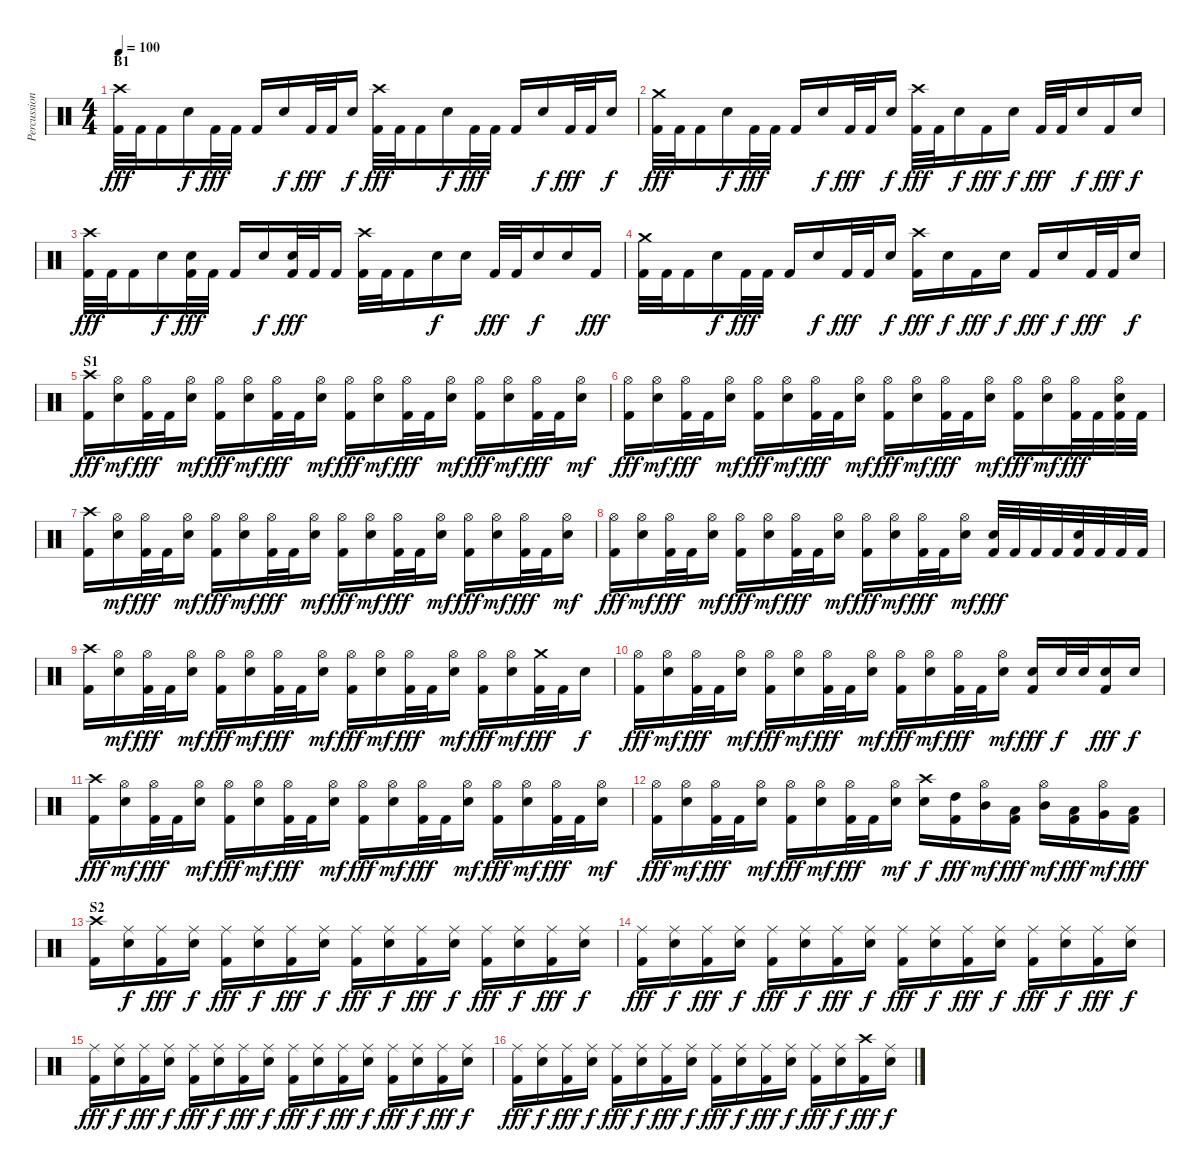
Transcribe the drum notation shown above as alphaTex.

\track ("Percussion" "Percussion") {instrument percussion}
\staff {score}
\articulation defaults
\ts (4 4)
\section ("" "B1")
\tempo 100
\clef neutral
\ks c
("Crash high (hit)" "Kick (hit) 2").32{dy fff} "Kick (hit) 2".32 "Kick (hit) 2".16 "Snare (hit) 2".16{dy f} "Kick (hit) 2".32{dy fff} "Kick (hit) 2".32 "Kick (hit) 2".16 "Snare (hit) 2".16{dy f} "Kick (hit) 2".32{dy fff} "Kick (hit) 2".32 "Snare (hit) 2".16{dy f} ("Crash high (hit)" "Kick (hit) 2").32{dy fff} "Kick (hit) 2".32 "Kick (hit) 2".16 "Snare (hit) 2".16{dy f} "Kick (hit) 2".32{dy fff} "Kick (hit) 2".32 "Kick (hit) 2".16 "Snare (hit) 2".16{dy f} "Kick (hit) 2".32{dy fff} "Kick (hit) 2".32 "Snare (hit) 2".16{dy f} |
("Crash medium (hit)" "Kick (hit) 2").32{dy fff} "Kick (hit) 2".32 "Kick (hit) 2".16 "Snare (hit) 2".16{dy f} "Kick (hit) 2".32{dy fff} "Kick (hit) 2".32 "Kick (hit) 2".16 "Snare (hit) 2".16{dy f} "Kick (hit) 2".32{dy fff} "Kick (hit) 2".32 "Snare (hit) 2".16{dy f} ("Crash high (hit)" "Kick (hit) 2").32{dy fff} "Kick (hit) 2".32 "Snare (hit) 2".16{dy f} "Kick (hit) 2".16{dy fff} "Snare (hit) 2".16{dy f} "Kick (hit) 2".32{dy fff} "Kick (hit) 2".32 "Snare (hit) 2".16{dy f} "Kick (hit) 2".16{dy fff} "Snare (hit) 2".16{dy f} |
("Crash high (hit)" "Kick (hit) 2").32{dy fff} "Kick (hit) 2".32 "Kick (hit) 2".16 "Snare (hit) 2".16{dy f} ("Snare (hit) 2" "Kick (hit) 2").32{dy fff} "Kick (hit) 2".32 "Kick (hit) 2".16 "Snare (hit) 2".16{dy f} ("Snare (hit) 2" "Kick (hit) 2").32{dy fff} "Kick (hit) 2".32 "Kick (hit) 2".16 ("Crash high (hit)" "Kick (hit) 2").32 "Kick (hit) 2".32 "Kick (hit) 2".16 "Snare (hit) 2".16{dy f} "Snare (hit) 2".16 "Kick (hit) 2".32{dy fff} "Kick (hit) 2".32 "Snare (hit) 2".16{dy f} "Snare (hit) 2".16 "Kick (hit) 2".16{dy fff} |
("Crash medium (hit)" "Kick (hit) 2").32 "Kick (hit) 2".32 "Kick (hit) 2".16 "Snare (hit) 2".16{dy f} "Kick (hit) 2".32{dy fff} "Kick (hit) 2".32 "Kick (hit) 2".16 "Snare (hit) 2".16{dy f} "Kick (hit) 2".32{dy fff} "Kick (hit) 2".32 "Snare (hit) 2".16{dy f} ("Crash high (hit)" "Kick (hit) 2").16{dy fff} "Snare (hit) 2".16{dy f} "Kick (hit) 2".16{dy fff} "Snare (hit) 2".16{dy f} "Kick (hit) 2".16{dy fff} "Snare (hit) 2".16{dy f} "Kick (hit) 2".32{dy fff} "Kick (hit) 2".32 "Snare (hit) 2".16{dy f} |
\section ("" "S1")
("Crash high (hit)" "Kick (hit) 2").16{dy fff} ("Hi-Hat (open)" "Snare (hit) 2").16{dy mf} ("Hi-Hat (open)" "Kick (hit) 2").32{dy fff} "Kick (hit) 2".32 ("Hi-Hat (open)" "Snare (hit) 2").16{dy mf} ("Hi-Hat (open)" "Kick (hit) 2").16{dy fff} ("Hi-Hat (open)" "Snare (hit) 2").16{dy mf} ("Hi-Hat (open)" "Kick (hit) 2").32{dy fff} "Kick (hit) 2".32 ("Hi-Hat (open)" "Snare (hit) 2").16{dy mf} ("Hi-Hat (open)" "Kick (hit) 2").16{dy fff} ("Hi-Hat (open)" "Snare (hit) 2").16{dy mf} ("Hi-Hat (open)" "Kick (hit) 2").32{dy fff} "Kick (hit) 2".32 ("Hi-Hat (open)" "Snare (hit) 2").16{dy mf} ("Hi-Hat (open)" "Kick (hit) 2").16{dy fff} ("Hi-Hat (open)" "Snare (hit) 2").16{dy mf} ("Hi-Hat (open)" "Kick (hit) 2").32{dy fff} "Kick (hit) 2".32 ("Hi-Hat (open)" "Snare (hit) 2").16{dy mf} |
("Hi-Hat (open)" "Kick (hit) 2").16{dy fff} ("Hi-Hat (open)" "Snare (hit) 2").16{dy mf} ("Hi-Hat (open)" "Kick (hit) 2").32{dy fff} "Kick (hit) 2".32 ("Hi-Hat (open)" "Snare (hit) 2").16{dy mf} ("Hi-Hat (open)" "Kick (hit) 2").16{dy fff} ("Hi-Hat (open)" "Snare (hit) 2").16{dy mf} ("Hi-Hat (open)" "Kick (hit) 2").32{dy fff} "Kick (hit) 2".32 ("Hi-Hat (open)" "Snare (hit) 2").16{dy mf} ("Hi-Hat (open)" "Kick (hit) 2").16{dy fff} ("Hi-Hat (open)" "Snare (hit) 2").16{dy mf} ("Hi-Hat (open)" "Kick (hit) 2").32{dy fff} "Kick (hit) 2".32 ("Hi-Hat (open)" "Snare (hit) 2").16{dy mf} ("Hi-Hat (open)" "Kick (hit) 2").16{dy fff} ("Hi-Hat (open)" "Snare (hit) 2").16{dy mf} ("Hi-Hat (open)" "Kick (hit) 2").32{dy fff} "Kick (hit) 2".32 ("Hi-Hat (open)" "Snare (hit) 2" "Kick (hit) 2").32 "Kick (hit) 2".32 |
("Crash high (hit)" "Kick (hit) 2").16 ("Hi-Hat (open)" "Snare (hit) 2").16{dy mf} ("Hi-Hat (open)" "Kick (hit) 2").32{dy fff} "Kick (hit) 2".32 ("Hi-Hat (open)" "Snare (hit) 2").16{dy mf} ("Hi-Hat (open)" "Kick (hit) 2").16{dy fff} ("Hi-Hat (open)" "Snare (hit) 2").16{dy mf} ("Hi-Hat (open)" "Kick (hit) 2").32{dy fff} "Kick (hit) 2".32 ("Hi-Hat (open)" "Snare (hit) 2").16{dy mf} ("Hi-Hat (open)" "Kick (hit) 2").16{dy fff} ("Hi-Hat (open)" "Snare (hit) 2").16{dy mf} ("Hi-Hat (open)" "Kick (hit) 2").32{dy fff} "Kick (hit) 2".32 ("Hi-Hat (open)" "Snare (hit) 2").16{dy mf} ("Hi-Hat (open)" "Kick (hit) 2").16{dy fff} ("Hi-Hat (open)" "Snare (hit) 2").16{dy mf} ("Hi-Hat (open)" "Kick (hit) 2").32{dy fff} "Kick (hit) 2".32 ("Hi-Hat (open)" "Snare (hit) 2").16{dy mf} |
("Hi-Hat (open)" "Kick (hit) 2").16{dy fff} ("Hi-Hat (open)" "Snare (hit) 2").16{dy mf} ("Hi-Hat (open)" "Kick (hit) 2").32{dy fff} "Kick (hit) 2".32 ("Hi-Hat (open)" "Snare (hit) 2").16{dy mf} ("Hi-Hat (open)" "Kick (hit) 2").16{dy fff} ("Hi-Hat (open)" "Snare (hit) 2").16{dy mf} ("Hi-Hat (open)" "Kick (hit) 2").32{dy fff} "Kick (hit) 2".32 ("Hi-Hat (open)" "Snare (hit) 2").16{dy mf} ("Hi-Hat (open)" "Kick (hit) 2").16{dy fff} ("Hi-Hat (open)" "Snare (hit) 2").16{dy mf} ("Hi-Hat (open)" "Kick (hit) 2").32{dy fff} "Kick (hit) 2".32 ("Hi-Hat (open)" "Snare (hit) 2").16{dy mf} ("Snare (hit) 2" "Kick (hit) 2").32{dy fff} "Kick (hit) 2".32 "Kick (hit) 2".32 "Kick (hit) 2".32 ("Snare (hit) 2" "Kick (hit) 2").32 "Kick (hit) 2".32 "Kick (hit) 2".32 "Kick (hit) 2".32 |
("Crash high (hit)" "Kick (hit) 2").16 ("Hi-Hat (open)" "Snare (hit) 2").16{dy mf} ("Hi-Hat (open)" "Kick (hit) 2").32{dy fff} "Kick (hit) 2".32 ("Hi-Hat (open)" "Snare (hit) 2").16{dy mf} ("Hi-Hat (open)" "Kick (hit) 2").16{dy fff} ("Hi-Hat (open)" "Snare (hit) 2").16{dy mf} ("Hi-Hat (open)" "Kick (hit) 2").32{dy fff} "Kick (hit) 2".32 ("Hi-Hat (open)" "Snare (hit) 2").16{dy mf} ("Hi-Hat (open)" "Kick (hit) 2").16{dy fff} ("Hi-Hat (open)" "Snare (hit) 2").16{dy mf} ("Hi-Hat (open)" "Kick (hit) 2").32{dy fff} "Kick (hit) 2".32 ("Hi-Hat (open)" "Snare (hit) 2").16{dy mf} ("Hi-Hat (open)" "Kick (hit) 2").16{dy fff} ("Hi-Hat (open)" "Snare (hit) 2").16{dy mf} ("Crash medium (hit)" "Kick (hit) 2").32{dy fff} "Kick (hit) 2".32 "Snare (hit) 2".16{dy f} |
("Hi-Hat (open)" "Kick (hit) 2").16{dy fff} ("Hi-Hat (open)" "Snare (hit) 2").16{dy mf} ("Hi-Hat (open)" "Kick (hit) 2").32{dy fff} "Kick (hit) 2".32 ("Hi-Hat (open)" "Snare (hit) 2").16{dy mf} ("Hi-Hat (open)" "Kick (hit) 2").16{dy fff} ("Hi-Hat (open)" "Snare (hit) 2").16{dy mf} ("Hi-Hat (open)" "Kick (hit) 2").32{dy fff} "Kick (hit) 2".32 ("Hi-Hat (open)" "Snare (hit) 2").16{dy mf} ("Hi-Hat (open)" "Kick (hit) 2").16{dy fff} ("Hi-Hat (open)" "Snare (hit) 2").16{dy mf} ("Hi-Hat (open)" "Kick (hit) 2").32{dy fff} "Kick (hit) 2".32 ("Hi-Hat (open)" "Snare (hit) 2").16{dy mf} ("Snare (hit) 2" "Kick (hit) 2").16{dy fff} "Snare (hit) 2".32{dy f} "Snare (hit) 2".32 ("Snare (hit) 2" "Kick (hit) 2").16{dy fff} "Snare (hit) 2".16{dy f} |
("Crash high (hit)" "Kick (hit) 2").16{dy fff} ("Hi-Hat (open)" "Snare (hit) 2").16{dy mf} ("Hi-Hat (open)" "Kick (hit) 2").32{dy fff} "Kick (hit) 2".32 ("Hi-Hat (open)" "Snare (hit) 2").16{dy mf} ("Hi-Hat (open)" "Kick (hit) 2").16{dy fff} ("Hi-Hat (open)" "Snare (hit) 2").16{dy mf} ("Hi-Hat (open)" "Kick (hit) 2").32{dy fff} "Kick (hit) 2".32 ("Hi-Hat (open)" "Snare (hit) 2").16{dy mf} ("Hi-Hat (open)" "Kick (hit) 2").16{dy fff} ("Hi-Hat (open)" "Snare (hit) 2").16{dy mf} ("Hi-Hat (open)" "Kick (hit) 2").32{dy fff} "Kick (hit) 2".32 ("Hi-Hat (open)" "Snare (hit) 2").16{dy mf} ("Hi-Hat (open)" "Kick (hit) 2").16{dy fff} ("Hi-Hat (open)" "Snare (hit) 2").16{dy mf} ("Hi-Hat (open)" "Kick (hit) 2").32{dy fff} "Kick (hit) 2".32 ("Hi-Hat (open)" "Snare (hit) 2").16{dy mf} |
("Hi-Hat (open)" "Kick (hit) 2").16{dy fff} ("Hi-Hat (open)" "Snare (hit) 2").16{dy mf} ("Hi-Hat (open)" "Kick (hit) 2").32{dy fff} "Kick (hit) 2".32 ("Hi-Hat (open)" "Snare (hit) 2").16{dy mf} ("Hi-Hat (open)" "Kick (hit) 2").16{dy fff} ("Hi-Hat (open)" "Snare (hit) 2").16{dy mf} ("Hi-Hat (open)" "Kick (hit) 2").32{dy fff} "Kick (hit) 2".32 ("Hi-Hat (open)" "Snare (hit) 2").16{dy mf} ("Crash high (hit)" "Snare (hit) 2").16{dy f} ("High Tom (hit)" "Kick (hit) 2").16{dy fff} ("Hi-Hat (open)" "Mid Tom (hit)").16{dy mf} ("Low Tom (hit)" "Kick (hit) 2").16{dy fff} ("Hi-Hat (open)" "Mid Tom (hit)").16{dy mf} ("Low Tom (hit)" "Kick (hit) 2").16{dy fff} ("Hi-Hat (open)" "Very Low Tom (hit)").16{dy mf} ("Low Floor Tom (hit)" "Kick (hit) 2").16{dy fff} |
\section ("" "S2")
("Crash high (hit)" "Kick (hit) 2").16 ("Ride (middle)" "Snare (hit) 2").16{dy f} ("Ride (middle)" "Kick (hit) 2").16{dy fff} ("Ride (middle)" "Snare (hit) 2").16{dy f} ("Ride (middle)" "Kick (hit) 2").16{dy fff} ("Ride (middle)" "Snare (hit) 2").16{dy f} ("Ride (middle)" "Kick (hit) 2").16{dy fff} ("Ride (middle)" "Snare (hit) 2").16{dy f} ("Ride (middle)" "Kick (hit) 2").16{dy fff} ("Ride (middle)" "Snare (hit) 2").16{dy f} ("Ride (middle)" "Kick (hit) 2").16{dy fff} ("Ride (middle)" "Snare (hit) 2").16{dy f} ("Ride (middle)" "Kick (hit) 2").16{dy fff} ("Ride (middle)" "Snare (hit) 2").16{dy f} ("Ride (middle)" "Kick (hit) 2").16{dy fff} ("Ride (middle)" "Snare (hit) 2").16{dy f} |
("Ride (middle)" "Kick (hit) 2").16{dy fff} ("Ride (middle)" "Snare (hit) 2").16{dy f} ("Ride (middle)" "Kick (hit) 2").16{dy fff} ("Ride (middle)" "Snare (hit) 2").16{dy f} ("Ride (middle)" "Kick (hit) 2").16{dy fff} ("Ride (middle)" "Snare (hit) 2").16{dy f} ("Ride (middle)" "Kick (hit) 2").16{dy fff} ("Ride (middle)" "Snare (hit) 2").16{dy f} ("Ride (middle)" "Kick (hit) 2").16{dy fff} ("Ride (middle)" "Snare (hit) 2").16{dy f} ("Ride (middle)" "Kick (hit) 2").16{dy fff} ("Ride (middle)" "Snare (hit) 2").16{dy f} ("Ride (middle)" "Kick (hit) 2").16{dy fff} ("Ride (middle)" "Snare (hit) 2").16{dy f} ("Ride (middle)" "Kick (hit) 2").16{dy fff} ("Ride (middle)" "Snare (hit) 2").16{dy f} |
("Ride (middle)" "Kick (hit) 2").16{dy fff} ("Ride (middle)" "Snare (hit) 2").16{dy f} ("Ride (middle)" "Kick (hit) 2").16{dy fff} ("Ride (middle)" "Snare (hit) 2").16{dy f} ("Ride (middle)" "Kick (hit) 2").16{dy fff} ("Ride (middle)" "Snare (hit) 2").16{dy f} ("Ride (middle)" "Kick (hit) 2").16{dy fff} ("Ride (middle)" "Snare (hit) 2").16{dy f} ("Ride (middle)" "Kick (hit) 2").16{dy fff} ("Ride (middle)" "Snare (hit) 2").16{dy f} ("Ride (middle)" "Kick (hit) 2").16{dy fff} ("Ride (middle)" "Snare (hit) 2").16{dy f} ("Ride (middle)" "Kick (hit) 2").16{dy fff} ("Ride (middle)" "Snare (hit) 2").16{dy f} ("Ride (middle)" "Kick (hit) 2").16{dy fff} ("Ride (middle)" "Snare (hit) 2").16{dy f} |
("Ride (middle)" "Kick (hit) 2").16{dy fff} ("Ride (middle)" "Snare (hit) 2").16{dy f} ("Ride (middle)" "Kick (hit) 2").16{dy fff} ("Ride (middle)" "Snare (hit) 2").16{dy f} ("Ride (middle)" "Kick (hit) 2").16{dy fff} ("Ride (middle)" "Snare (hit) 2").16{dy f} ("Ride (middle)" "Kick (hit) 2").16{dy fff} ("Ride (middle)" "Snare (hit) 2").16{dy f} ("Ride (middle)" "Kick (hit) 2").16{dy fff} ("Ride (middle)" "Snare (hit) 2").16{dy f} ("Ride (middle)" "Kick (hit) 2").16{dy fff} ("Ride (middle)" "Snare (hit) 2").16{dy f} ("Ride (middle)" "Kick (hit) 2").16{dy fff} ("Ride (middle)" "Snare (hit) 2").16{dy f} ("Crash high (hit)" "Kick (hit) 2").16{dy fff} ("Ride (middle)" "Snare (hit) 2").16{dy f}
